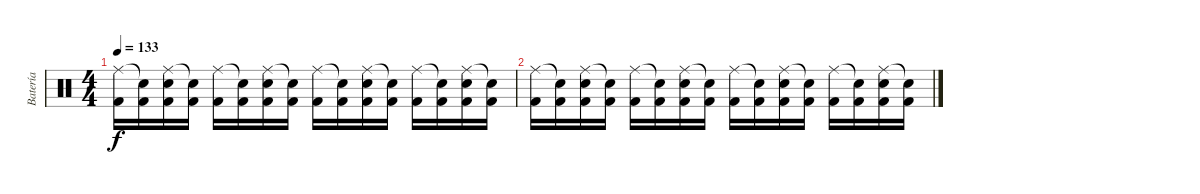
\track ("Batería" "Batería") {instrument percussion}
\staff {score}
\articulation defaults
\ts (4 4)
\tempo 133
\clef neutral
\ks c
("Ride (middle)" "Kick (hit) 2").16{dy f} ("Snare (hit)"{t} "Kick (hit) 2").16 ("Ride (middle)" "Snare (hit) 2" "Kick (hit) 2").16 ("Snare (hit)"{t} "Kick (hit) 2").16 ("Ride (middle)" "Kick (hit) 2").16 ("Snare (hit)"{t} "Kick (hit) 2").16 ("Ride (middle)" "Snare (hit) 2" "Kick (hit) 2").16 ("Snare (hit)"{t} "Kick (hit) 2").16 ("Ride (middle)" "Kick (hit) 2").16 ("Snare (hit)"{t} "Kick (hit) 2").16 ("Ride (middle)" "Snare (hit) 2" "Kick (hit) 2").16 ("Snare (hit)"{t} "Kick (hit) 2").16 ("Ride (middle)" "Kick (hit) 2").16 ("Snare (hit)"{t} "Kick (hit) 2").16 ("Ride (middle)" "Snare (hit) 2" "Kick (hit) 2").16 ("Snare (hit)"{t} "Kick (hit) 2").16 |
("Ride (middle)" "Kick (hit) 2").16 ("Snare (hit)"{t} "Kick (hit) 2").16 ("Ride (middle)" "Snare (hit) 2" "Kick (hit) 2").16 ("Snare (hit)"{t} "Kick (hit) 2").16 ("Ride (middle)" "Kick (hit) 2").16 ("Snare (hit)"{t} "Kick (hit) 2").16 ("Ride (middle)" "Snare (hit) 2" "Kick (hit) 2").16 ("Snare (hit)"{t} "Kick (hit) 2").16 ("Ride (middle)" "Kick (hit) 2").16 ("Snare (hit)"{t} "Kick (hit) 2").16 ("Ride (middle)" "Snare (hit) 2" "Kick (hit) 2").16 ("Snare (hit)"{t} "Kick (hit) 2").16 ("Ride (middle)" "Kick (hit) 2").16 ("Snare (hit)"{t} "Kick (hit) 2").16 ("Ride (middle)" "Snare (hit) 2" "Kick (hit) 2").16 ("Snare (hit)"{t} "Kick (hit) 2").16
